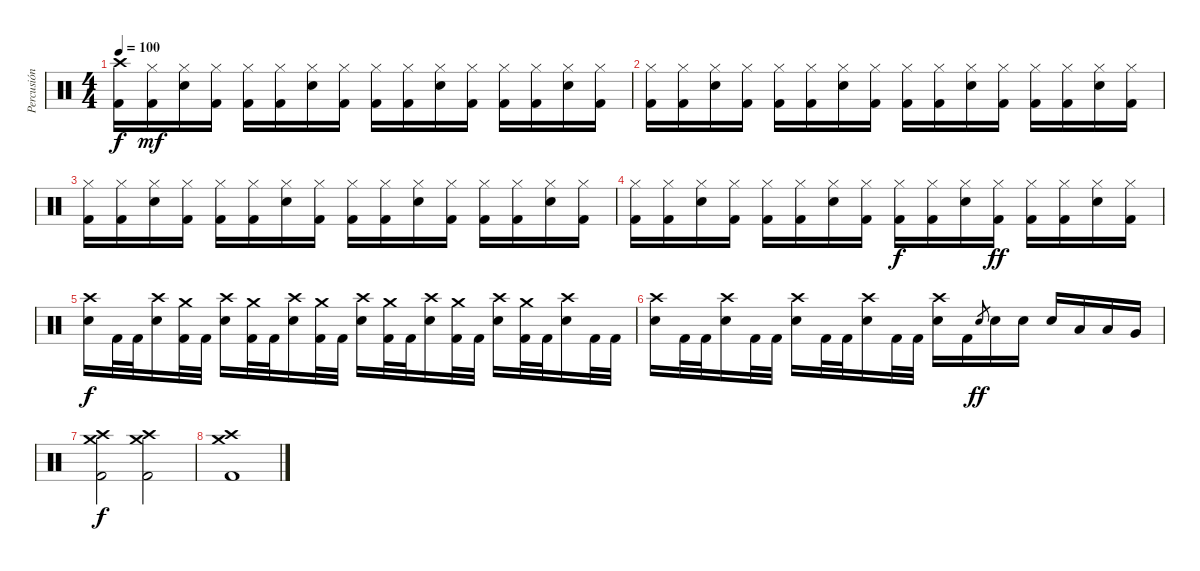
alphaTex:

\track ("Percusión" "Percusión") {instrument percussion}
\staff {score}
\articulation defaults
\ts (4 4)
\tempo 100
\clef neutral
\ks c
("Crash high (hit)" "Kick (hit) 2").16{dy f} ("Hi-Hat (closed)" "Kick (hit) 2").16{dy mf} ("Hi-Hat (closed)" "Electric Snare (hit)").16 ("Hi-Hat (closed)" "Kick (hit) 2").16 ("Hi-Hat (closed)" "Kick (hit) 2").16 ("Hi-Hat (closed)" "Kick (hit) 2").16 ("Hi-Hat (closed)" "Electric Snare (hit)").16 ("Hi-Hat (closed)" "Kick (hit) 2").16 ("Hi-Hat (closed)" "Kick (hit) 2").16 ("Hi-Hat (closed)" "Kick (hit) 2").16 ("Hi-Hat (closed)" "Electric Snare (hit)").16 ("Hi-Hat (closed)" "Kick (hit) 2").16 ("Hi-Hat (closed)" "Kick (hit) 2").16 ("Hi-Hat (closed)" "Kick (hit) 2").16 ("Hi-Hat (closed)" "Electric Snare (hit)").16 ("Hi-Hat (closed)" "Kick (hit) 2").16 |
("Hi-Hat (closed)" "Kick (hit) 2").16 ("Hi-Hat (closed)" "Kick (hit) 2").16 ("Hi-Hat (closed)" "Electric Snare (hit)").16 ("Hi-Hat (closed)" "Kick (hit) 2").16 ("Hi-Hat (closed)" "Kick (hit) 2").16 ("Hi-Hat (closed)" "Kick (hit) 2").16 ("Hi-Hat (closed)" "Electric Snare (hit)").16 ("Hi-Hat (closed)" "Kick (hit) 2").16 ("Hi-Hat (closed)" "Kick (hit) 2").16 ("Hi-Hat (closed)" "Kick (hit) 2").16 ("Hi-Hat (closed)" "Electric Snare (hit)").16 ("Hi-Hat (closed)" "Kick (hit) 2").16 ("Hi-Hat (closed)" "Kick (hit) 2").16 ("Hi-Hat (closed)" "Kick (hit) 2").16 ("Hi-Hat (closed)" "Electric Snare (hit)").16 ("Hi-Hat (closed)" "Kick (hit) 2").16 |
("Hi-Hat (closed)" "Kick (hit) 2").16 ("Hi-Hat (closed)" "Kick (hit) 2").16 ("Hi-Hat (closed)" "Electric Snare (hit)").16 ("Hi-Hat (closed)" "Kick (hit) 2").16 ("Hi-Hat (closed)" "Kick (hit) 2").16 ("Hi-Hat (closed)" "Kick (hit) 2").16 ("Hi-Hat (closed)" "Electric Snare (hit)").16 ("Hi-Hat (closed)" "Kick (hit) 2").16 ("Hi-Hat (closed)" "Kick (hit) 2").16 ("Hi-Hat (closed)" "Kick (hit) 2").16 ("Hi-Hat (closed)" "Electric Snare (hit)").16 ("Hi-Hat (closed)" "Kick (hit) 2").16 ("Hi-Hat (closed)" "Kick (hit) 2").16 ("Hi-Hat (closed)" "Kick (hit) 2").16 ("Hi-Hat (closed)" "Electric Snare (hit)").16 ("Hi-Hat (closed)" "Kick (hit) 2").16 |
("Hi-Hat (closed)" "Kick (hit) 2").16 ("Hi-Hat (closed)" "Kick (hit) 2").16 ("Hi-Hat (closed)" "Electric Snare (hit)").16 ("Hi-Hat (closed)" "Kick (hit) 2").16 ("Hi-Hat (closed)" "Kick (hit) 2").16 ("Hi-Hat (closed)" "Kick (hit) 2").16 ("Hi-Hat (closed)" "Electric Snare (hit)").16 ("Hi-Hat (closed)" "Kick (hit) 2").16 ("Hi-Hat (closed)" "Kick (hit) 2").16{dy f} ("Hi-Hat (closed)" "Kick (hit) 2").16 ("Hi-Hat (closed)" "Electric Snare (hit)").16 ("Hi-Hat (closed)" "Kick (hit) 2").16{dy ff} ("Hi-Hat (closed)" "Kick (hit) 2").16 ("Hi-Hat (closed)" "Kick (hit) 2").16 ("Hi-Hat (closed)" "Electric Snare (hit)").16 ("Hi-Hat (closed)" "Kick (hit) 2").16 |
("Crash high (hit)" "Electric Snare (hit)").16{dy f} "Kick (hit) 2".32 "Kick (hit) 2".32 ("Crash high (hit)" "Electric Snare (hit)").16 ("Crash medium (hit)" "Kick (hit) 2").32 "Kick (hit) 2".32 ("Crash high (hit)" "Electric Snare (hit)").16 ("Crash medium (hit)" "Kick (hit) 2").32 "Kick (hit) 2".32 ("Crash high (hit)" "Electric Snare (hit)").16 ("Crash medium (hit)" "Kick (hit) 2").32 "Kick (hit) 2".32 ("Crash high (hit)" "Electric Snare (hit)").16 ("Crash medium (hit)" "Kick (hit) 2").32 "Kick (hit) 2".32 ("Crash high (hit)" "Electric Snare (hit)").16 ("Crash medium (hit)" "Kick (hit) 2").32 "Kick (hit) 2".32 ("Crash high (hit)" "Electric Snare (hit)").16 ("Crash medium (hit)" "Kick (hit) 2").32 "Kick (hit) 2".32 ("Crash high (hit)" "Electric Snare (hit)").16 "Kick (hit) 2".32 "Kick (hit) 2".32 |
("Crash high (hit)" "Electric Snare (hit)").16 "Kick (hit) 2".32 "Kick (hit) 2".32 ("Crash high (hit)" "Electric Snare (hit)").16 "Kick (hit) 2".32 "Kick (hit) 2".32 ("Crash high (hit)" "Electric Snare (hit)").16 "Kick (hit) 2".32 "Kick (hit) 2".32 ("Crash high (hit)" "Electric Snare (hit)").16 "Kick (hit) 2".32 "Kick (hit) 2".32 ("Crash high (hit)" "Electric Snare (hit)").16 "Kick (hit) 2".16 "Electric Snare (hit)".8{gr dy ff} "Electric Snare (hit)".16 "Electric Snare (hit)".16 "Electric Snare (hit)".16 "Low Tom (hit)".16 "Low Tom (hit)".16 "Very Low Tom (hit)".16 |
("Crash medium (hit)" "Crash high (hit)" "Kick (hit) 2").2{dy f} ("Crash medium (hit)" "Crash high (hit)" "Kick (hit) 2").2 |
("Crash medium (hit)" "Crash high (hit)" "Kick (hit) 2").1
